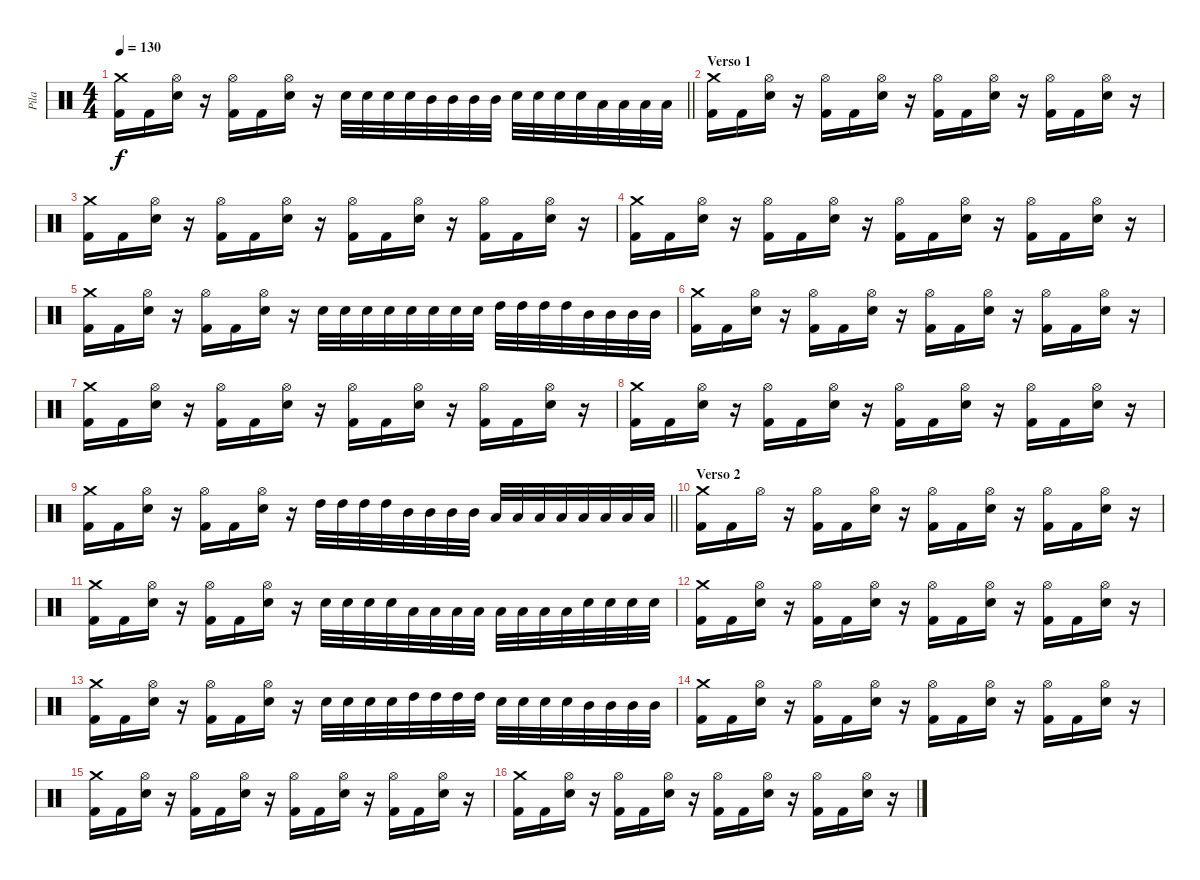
\track ("Pila" "Pila") {instrument percussion}
\staff {score}
\articulation defaults
\ts (4 4)
\tempo 130
\clef neutral
\barLineRight lightlight
\ks c
("Crash medium (hit)" "Kick (hit) 2").16{dy f} "Kick (hit) 2".16 ("Hi-Hat (open)" "Electric Snare (hit)").16 r.16 ("Hi-Hat (open)" "Kick (hit) 2").16 "Kick (hit) 2".16 ("Hi-Hat (open)" "Electric Snare (hit)").16 r.16 "Electric Snare (hit)".32 "Electric Snare (hit)".32 "Electric Snare (hit)".32 "Electric Snare (hit)".32 "Mid Tom (hit)".32 "Mid Tom (hit)".32 "Mid Tom (hit)".32 "Mid Tom (hit)".32 "Electric Snare (hit)".32 "Electric Snare (hit)".32 "Electric Snare (hit)".32 "Electric Snare (hit)".32 "Low Floor Tom (hit)".32 "Low Floor Tom (hit)".32 "Low Floor Tom (hit)".32 "Low Floor Tom (hit)".32 |
\section ("" "Verso 1")
("Crash medium (hit)" "Kick (hit) 2").16 "Kick (hit) 2".16 ("Hi-Hat (open)" "Electric Snare (hit)").16 r.16 ("Hi-Hat (open)" "Kick (hit) 2").16 "Kick (hit) 2".16 ("Hi-Hat (open)" "Electric Snare (hit)").16 r.16 ("Hi-Hat (open)" "Kick (hit) 2").16 "Kick (hit) 2".16 ("Hi-Hat (open)" "Electric Snare (hit)").16 r.16 ("Hi-Hat (open)" "Kick (hit) 2").16 "Kick (hit) 2".16 ("Hi-Hat (open)" "Electric Snare (hit)").16 r.16 |
("Crash medium (hit)" "Kick (hit) 2").16 "Kick (hit) 2".16 ("Hi-Hat (open)" "Electric Snare (hit)").16 r.16 ("Hi-Hat (open)" "Kick (hit) 2").16 "Kick (hit) 2".16 ("Hi-Hat (open)" "Electric Snare (hit)").16 r.16 ("Hi-Hat (open)" "Kick (hit) 2").16 "Kick (hit) 2".16 ("Hi-Hat (open)" "Electric Snare (hit)").16 r.16 ("Hi-Hat (open)" "Kick (hit) 2").16 "Kick (hit) 2".16 ("Hi-Hat (open)" "Electric Snare (hit)").16 r.16 |
("Crash medium (hit)" "Kick (hit) 2").16 "Kick (hit) 2".16 ("Hi-Hat (open)" "Electric Snare (hit)").16 r.16 ("Hi-Hat (open)" "Kick (hit) 2").16 "Kick (hit) 2".16 ("Hi-Hat (open)" "Electric Snare (hit)").16 r.16 ("Hi-Hat (open)" "Kick (hit) 2").16 "Kick (hit) 2".16 ("Hi-Hat (open)" "Electric Snare (hit)").16 r.16 ("Hi-Hat (open)" "Kick (hit) 2").16 "Kick (hit) 2".16 ("Hi-Hat (open)" "Electric Snare (hit)").16 r.16 |
("Crash medium (hit)" "Kick (hit) 2").16 "Kick (hit) 2".16 ("Hi-Hat (open)" "Electric Snare (hit)").16 r.16 ("Hi-Hat (open)" "Kick (hit) 2").16 "Kick (hit) 2".16 ("Hi-Hat (open)" "Electric Snare (hit)").16 r.16 "Electric Snare (hit)".32 "Electric Snare (hit)".32 "Electric Snare (hit)".32 "Electric Snare (hit)".32 "Electric Snare (hit)".32 "Electric Snare (hit)".32 "Electric Snare (hit)".32 "Electric Snare (hit)".32 "High Tom (hit)".32 "High Tom (hit)".32 "High Tom (hit)".32 "High Tom (hit)".32 "Mid Tom (hit)".32 "Mid Tom (hit)".32 "Mid Tom (hit)".32 "Mid Tom (hit)".32 |
("Crash medium (hit)" "Kick (hit) 2").16 "Kick (hit) 2".16 ("Hi-Hat (open)" "Electric Snare (hit)").16 r.16 ("Hi-Hat (open)" "Kick (hit) 2").16 "Kick (hit) 2".16 ("Hi-Hat (open)" "Electric Snare (hit)").16 r.16 ("Hi-Hat (open)" "Kick (hit) 2").16 "Kick (hit) 2".16 ("Hi-Hat (open)" "Electric Snare (hit)").16 r.16 ("Hi-Hat (open)" "Kick (hit) 2").16 "Kick (hit) 2".16 ("Hi-Hat (open)" "Electric Snare (hit)").16 r.16 |
("Crash medium (hit)" "Kick (hit) 2").16 "Kick (hit) 2".16 ("Hi-Hat (open)" "Electric Snare (hit)").16 r.16 ("Hi-Hat (open)" "Kick (hit) 2").16 "Kick (hit) 2".16 ("Hi-Hat (open)" "Electric Snare (hit)").16 r.16 ("Hi-Hat (open)" "Kick (hit) 2").16 "Kick (hit) 2".16 ("Hi-Hat (open)" "Electric Snare (hit)").16 r.16 ("Hi-Hat (open)" "Kick (hit) 2").16 "Kick (hit) 2".16 ("Hi-Hat (open)" "Electric Snare (hit)").16 r.16 |
("Crash medium (hit)" "Kick (hit) 2").16 "Kick (hit) 2".16 ("Hi-Hat (open)" "Electric Snare (hit)").16 r.16 ("Hi-Hat (open)" "Kick (hit) 2").16 "Kick (hit) 2".16 ("Hi-Hat (open)" "Electric Snare (hit)").16 r.16 ("Hi-Hat (open)" "Kick (hit) 2").16 "Kick (hit) 2".16 ("Hi-Hat (open)" "Electric Snare (hit)").16 r.16 ("Hi-Hat (open)" "Kick (hit) 2").16 "Kick (hit) 2".16 ("Hi-Hat (open)" "Electric Snare (hit)").16 r.16 |
\barLineRight lightlight
("Crash medium (hit)" "Kick (hit) 2").16 "Kick (hit) 2".16 ("Hi-Hat (open)" "Electric Snare (hit)").16 r.16 ("Hi-Hat (open)" "Kick (hit) 2").16 "Kick (hit) 2".16 ("Hi-Hat (open)" "Electric Snare (hit)").16 r.16 "High Tom (hit)".32 "High Tom (hit)".32 "High Tom (hit)".32 "High Tom (hit)".32 "Mid Tom (hit)".32 "Mid Tom (hit)".32 "Mid Tom (hit)".32 "Mid Tom (hit)".32 "Low Tom (hit)".32 "Low Tom (hit)".32 "Low Tom (hit)".32 "Low Tom (hit)".32 "Low Floor Tom (hit)".32 "Low Floor Tom (hit)".32 "Low Floor Tom (hit)".32 "Low Floor Tom (hit)".32 |
\section ("" "Verso 2")
("Crash medium (hit)" "Kick (hit) 2").16 "Kick (hit) 2".16 "Hi-Hat (open)".16 r.16 ("Hi-Hat (open)" "Kick (hit) 2").16 "Kick (hit) 2".16 ("Hi-Hat (open)" "Electric Snare (hit)").16 r.16 ("Hi-Hat (open)" "Kick (hit) 2").16 "Kick (hit) 2".16 ("Hi-Hat (open)" "Electric Snare (hit)").16 r.16 ("Hi-Hat (open)" "Kick (hit) 2").16 "Kick (hit) 2".16 ("Hi-Hat (open)" "Electric Snare (hit)").16 r.16 |
("Crash medium (hit)" "Kick (hit) 2").16 "Kick (hit) 2".16 ("Hi-Hat (open)" "Electric Snare (hit)").16 r.16 ("Hi-Hat (open)" "Kick (hit) 2").16 "Kick (hit) 2".16 ("Hi-Hat (open)" "Electric Snare (hit)").16 r.16 "Electric Snare (hit)".32 "Electric Snare (hit)".32 "Electric Snare (hit)".32 "Electric Snare (hit)".32 "Low Floor Tom (hit)".32 "Low Floor Tom (hit)".32 "Low Floor Tom (hit)".32 "Low Floor Tom (hit)".32 "Low Tom (hit)".32 "Low Tom (hit)".32 "Low Tom (hit)".32 "Low Tom (hit)".32 "Electric Snare (hit)".32 "Electric Snare (hit)".32 "Electric Snare (hit)".32 "Electric Snare (hit)".32 |
("Crash medium (hit)" "Kick (hit) 2").16 "Kick (hit) 2".16 ("Hi-Hat (open)" "Electric Snare (hit)").16 r.16 ("Hi-Hat (open)" "Kick (hit) 2").16 "Kick (hit) 2".16 ("Hi-Hat (open)" "Electric Snare (hit)").16 r.16 ("Hi-Hat (open)" "Kick (hit) 2").16 "Kick (hit) 2".16 ("Hi-Hat (open)" "Electric Snare (hit)").16 r.16 ("Hi-Hat (open)" "Kick (hit) 2").16 "Kick (hit) 2".16 ("Hi-Hat (open)" "Electric Snare (hit)").16 r.16 |
("Crash medium (hit)" "Kick (hit) 2").16 "Kick (hit) 2".16 ("Hi-Hat (open)" "Electric Snare (hit)").16 r.16 ("Hi-Hat (open)" "Kick (hit) 2").16 "Kick (hit) 2".16 ("Hi-Hat (open)" "Electric Snare (hit)").16 r.16 "Electric Snare (hit)".32 "Electric Snare (hit)".32 "Electric Snare (hit)".32 "Electric Snare (hit)".32 "High Tom (hit)".32 "High Tom (hit)".32 "High Tom (hit)".32 "High Tom (hit)".32 "Electric Snare (hit)".32 "Electric Snare (hit)".32 "Electric Snare (hit)".32 "Electric Snare (hit)".32 "Mid Tom (hit)".32 "Mid Tom (hit)".32 "Mid Tom (hit)".32 "Mid Tom (hit)".32 |
("Crash medium (hit)" "Kick (hit) 2").16 "Kick (hit) 2".16 ("Hi-Hat (open)" "Electric Snare (hit)").16 r.16 ("Hi-Hat (open)" "Kick (hit) 2").16 "Kick (hit) 2".16 ("Hi-Hat (open)" "Electric Snare (hit)").16 r.16 ("Hi-Hat (open)" "Kick (hit) 2").16 "Kick (hit) 2".16 ("Hi-Hat (open)" "Electric Snare (hit)").16 r.16 ("Hi-Hat (open)" "Kick (hit) 2").16 "Kick (hit) 2".16 ("Hi-Hat (open)" "Electric Snare (hit)").16 r.16 |
("Crash medium (hit)" "Kick (hit) 2").16 "Kick (hit) 2".16 ("Hi-Hat (open)" "Electric Snare (hit)").16 r.16 ("Hi-Hat (open)" "Kick (hit) 2").16 "Kick (hit) 2".16 ("Hi-Hat (open)" "Electric Snare (hit)").16 r.16 ("Hi-Hat (open)" "Kick (hit) 2").16 "Kick (hit) 2".16 ("Hi-Hat (open)" "Electric Snare (hit)").16 r.16 ("Hi-Hat (open)" "Kick (hit) 2").16 "Kick (hit) 2".16 ("Hi-Hat (open)" "Electric Snare (hit)").16 r.16 |
("Crash medium (hit)" "Kick (hit) 2").16 "Kick (hit) 2".16 ("Hi-Hat (open)" "Electric Snare (hit)").16 r.16 ("Hi-Hat (open)" "Kick (hit) 2").16 "Kick (hit) 2".16 ("Hi-Hat (open)" "Electric Snare (hit)").16 r.16 ("Hi-Hat (open)" "Kick (hit) 2").16 "Kick (hit) 2".16 ("Hi-Hat (open)" "Electric Snare (hit)").16 r.16 ("Hi-Hat (open)" "Kick (hit) 2").16 "Kick (hit) 2".16 ("Hi-Hat (open)" "Electric Snare (hit)").16 r.16
